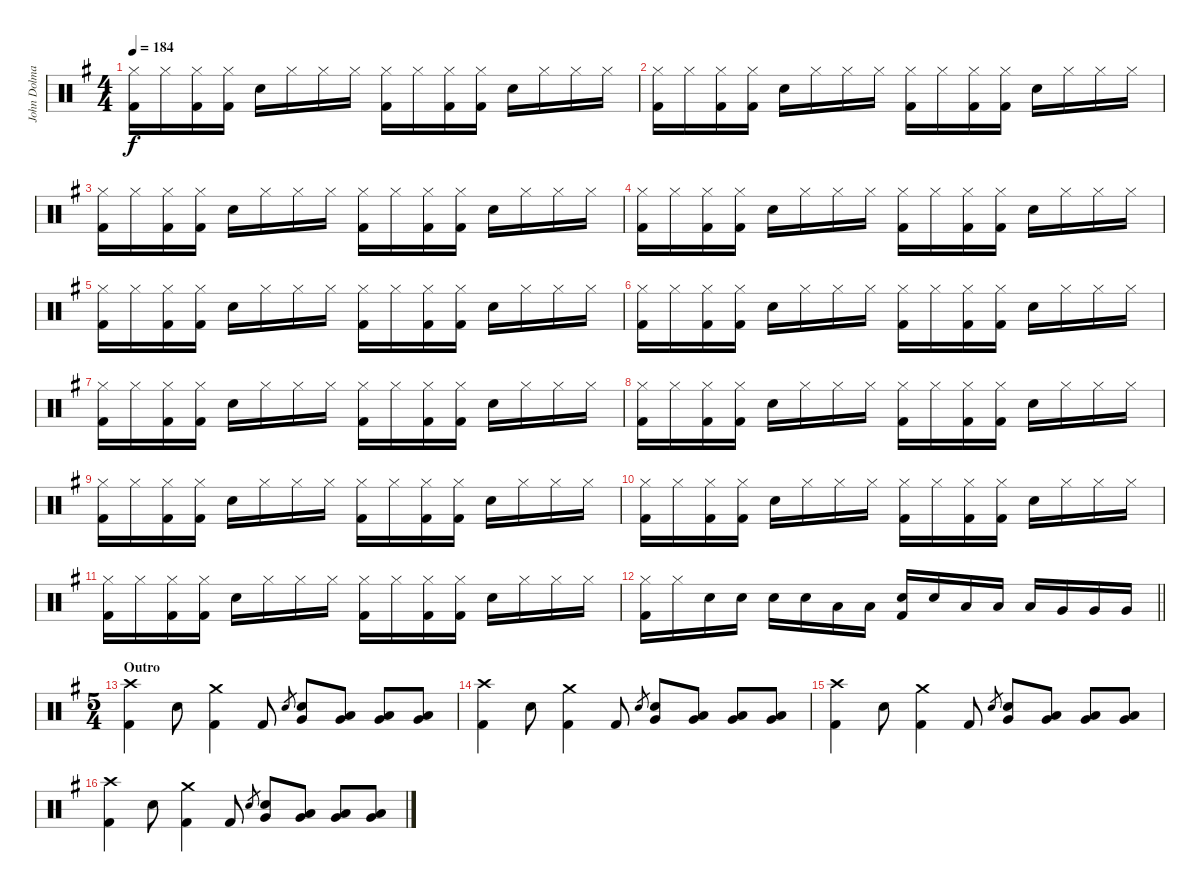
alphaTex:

\track ("John Dolmayan [Drums]" "John Dolma") {instrument percussion}
\staff {score}
\articulation defaults
\ts (4 4)
\tempo 184
\clef neutral
\ks eminor
("Hi-Hat (closed)" "Kick (hit) 2").16{dy f} "Hi-Hat (closed)".16 ("Hi-Hat (closed)" "Kick (hit) 2").16 ("Hi-Hat (closed)" "Kick (hit) 2").16 "Electric Snare (hit)".16 "Hi-Hat (closed)".16 "Hi-Hat (closed)".16 "Hi-Hat (closed)".16 ("Hi-Hat (closed)" "Kick (hit) 2").16 "Hi-Hat (closed)".16 ("Hi-Hat (closed)" "Kick (hit) 2").16 ("Hi-Hat (closed)" "Kick (hit) 2").16 "Electric Snare (hit)".16 "Hi-Hat (closed)".16 "Hi-Hat (closed)".16 "Hi-Hat (closed)".16 |
("Hi-Hat (closed)" "Kick (hit) 2").16 "Hi-Hat (closed)".16 ("Hi-Hat (closed)" "Kick (hit) 2").16 ("Hi-Hat (closed)" "Kick (hit) 2").16 "Electric Snare (hit)".16 "Hi-Hat (closed)".16 "Hi-Hat (closed)".16 "Hi-Hat (closed)".16 ("Hi-Hat (closed)" "Kick (hit) 2").16 "Hi-Hat (closed)".16 ("Hi-Hat (closed)" "Kick (hit) 2").16 ("Hi-Hat (closed)" "Kick (hit) 2").16 "Electric Snare (hit)".16 "Hi-Hat (closed)".16 "Hi-Hat (closed)".16 "Hi-Hat (closed)".16 |
("Hi-Hat (closed)" "Kick (hit) 2").16 "Hi-Hat (closed)".16 ("Hi-Hat (closed)" "Kick (hit) 2").16 ("Hi-Hat (closed)" "Kick (hit) 2").16 "Electric Snare (hit)".16 "Hi-Hat (closed)".16 "Hi-Hat (closed)".16 "Hi-Hat (closed)".16 ("Hi-Hat (closed)" "Kick (hit) 2").16 "Hi-Hat (closed)".16 ("Hi-Hat (closed)" "Kick (hit) 2").16 ("Hi-Hat (closed)" "Kick (hit) 2").16 "Electric Snare (hit)".16 "Hi-Hat (closed)".16 "Hi-Hat (closed)".16 "Hi-Hat (closed)".16 |
("Hi-Hat (closed)" "Kick (hit) 2").16 "Hi-Hat (closed)".16 ("Hi-Hat (closed)" "Kick (hit) 2").16 ("Hi-Hat (closed)" "Kick (hit) 2").16 "Electric Snare (hit)".16 "Hi-Hat (closed)".16 "Hi-Hat (closed)".16 "Hi-Hat (closed)".16 ("Hi-Hat (closed)" "Kick (hit) 2").16 "Hi-Hat (closed)".16 ("Hi-Hat (closed)" "Kick (hit) 2").16 ("Hi-Hat (closed)" "Kick (hit) 2").16 "Electric Snare (hit)".16 "Hi-Hat (closed)".16 "Hi-Hat (closed)".16 "Hi-Hat (closed)".16 |
("Hi-Hat (closed)" "Kick (hit) 2").16 "Hi-Hat (closed)".16 ("Hi-Hat (closed)" "Kick (hit) 2").16 ("Hi-Hat (closed)" "Kick (hit) 2").16 "Electric Snare (hit)".16 "Hi-Hat (closed)".16 "Hi-Hat (closed)".16 "Hi-Hat (closed)".16 ("Hi-Hat (closed)" "Kick (hit) 2").16 "Hi-Hat (closed)".16 ("Hi-Hat (closed)" "Kick (hit) 2").16 ("Hi-Hat (closed)" "Kick (hit) 2").16 "Electric Snare (hit)".16 "Hi-Hat (closed)".16 "Hi-Hat (closed)".16 "Hi-Hat (closed)".16 |
("Hi-Hat (closed)" "Kick (hit) 2").16 "Hi-Hat (closed)".16 ("Hi-Hat (closed)" "Kick (hit) 2").16 ("Hi-Hat (closed)" "Kick (hit) 2").16 "Electric Snare (hit)".16 "Hi-Hat (closed)".16 "Hi-Hat (closed)".16 "Hi-Hat (closed)".16 ("Hi-Hat (closed)" "Kick (hit) 2").16 "Hi-Hat (closed)".16 ("Hi-Hat (closed)" "Kick (hit) 2").16 ("Hi-Hat (closed)" "Kick (hit) 2").16 "Electric Snare (hit)".16 "Hi-Hat (closed)".16 "Hi-Hat (closed)".16 "Hi-Hat (closed)".16 |
("Hi-Hat (closed)" "Kick (hit) 2").16 "Hi-Hat (closed)".16 ("Hi-Hat (closed)" "Kick (hit) 2").16 ("Hi-Hat (closed)" "Kick (hit) 2").16 "Electric Snare (hit)".16 "Hi-Hat (closed)".16 "Hi-Hat (closed)".16 "Hi-Hat (closed)".16 ("Hi-Hat (closed)" "Kick (hit) 2").16 "Hi-Hat (closed)".16 ("Hi-Hat (closed)" "Kick (hit) 2").16 ("Hi-Hat (closed)" "Kick (hit) 2").16 "Electric Snare (hit)".16 "Hi-Hat (closed)".16 "Hi-Hat (closed)".16 "Hi-Hat (closed)".16 |
("Hi-Hat (closed)" "Kick (hit) 2").16 "Hi-Hat (closed)".16 ("Hi-Hat (closed)" "Kick (hit) 2").16 ("Hi-Hat (closed)" "Kick (hit) 2").16 "Electric Snare (hit)".16 "Hi-Hat (closed)".16 "Hi-Hat (closed)".16 "Hi-Hat (closed)".16 ("Hi-Hat (closed)" "Kick (hit) 2").16 "Hi-Hat (closed)".16 ("Hi-Hat (closed)" "Kick (hit) 2").16 ("Hi-Hat (closed)" "Kick (hit) 2").16 "Electric Snare (hit)".16 "Hi-Hat (closed)".16 "Hi-Hat (closed)".16 "Hi-Hat (closed)".16 |
("Hi-Hat (closed)" "Kick (hit) 2").16 "Hi-Hat (closed)".16 ("Hi-Hat (closed)" "Kick (hit) 2").16 ("Hi-Hat (closed)" "Kick (hit) 2").16 "Electric Snare (hit)".16 "Hi-Hat (closed)".16 "Hi-Hat (closed)".16 "Hi-Hat (closed)".16 ("Hi-Hat (closed)" "Kick (hit) 2").16 "Hi-Hat (closed)".16 ("Hi-Hat (closed)" "Kick (hit) 2").16 ("Hi-Hat (closed)" "Kick (hit) 2").16 "Electric Snare (hit)".16 "Hi-Hat (closed)".16 "Hi-Hat (closed)".16 "Hi-Hat (closed)".16 |
("Hi-Hat (closed)" "Kick (hit) 2").16 "Hi-Hat (closed)".16 ("Hi-Hat (closed)" "Kick (hit) 2").16 ("Hi-Hat (closed)" "Kick (hit) 2").16 "Electric Snare (hit)".16 "Hi-Hat (closed)".16 "Hi-Hat (closed)".16 "Hi-Hat (closed)".16 ("Hi-Hat (closed)" "Kick (hit) 2").16 "Hi-Hat (closed)".16 ("Hi-Hat (closed)" "Kick (hit) 2").16 ("Hi-Hat (closed)" "Kick (hit) 2").16 "Electric Snare (hit)".16 "Hi-Hat (closed)".16 "Hi-Hat (closed)".16 "Hi-Hat (closed)".16 |
("Hi-Hat (closed)" "Kick (hit) 2").16 "Hi-Hat (closed)".16 ("Hi-Hat (closed)" "Kick (hit) 2").16 ("Hi-Hat (closed)" "Kick (hit) 2").16 "Electric Snare (hit)".16 "Hi-Hat (closed)".16 "Hi-Hat (closed)".16 "Hi-Hat (closed)".16 ("Hi-Hat (closed)" "Kick (hit) 2").16 "Hi-Hat (closed)".16 ("Hi-Hat (closed)" "Kick (hit) 2").16 ("Hi-Hat (closed)" "Kick (hit) 2").16 "Electric Snare (hit)".16 "Hi-Hat (closed)".16 "Hi-Hat (closed)".16 "Hi-Hat (closed)".16 |
\barLineRight lightlight
("Hi-Hat (closed)" "Kick (hit) 2").16 "Hi-Hat (closed)".16 "Electric Snare (hit)".16 "Electric Snare (hit)".16 "Electric Snare (hit)".16 "Electric Snare (hit)".16 "Low Tom (hit)".16 "Low Tom (hit)".16 ("Electric Snare (hit)" "Kick (hit) 2").16 "Electric Snare (hit)".16 "Low Tom (hit)".16 "Low Tom (hit)".16 "Low Tom (hit)".16 "Very Low Tom (hit)".16 "Very Low Tom (hit)".16 "Very Low Tom (hit)".16 |
\ts (5 4)
\section ("" "Outro")
("Crash high (hit)" "Kick (hit) 2").4 "Electric Snare (hit)".8 ("Crash medium (hit)" "Kick (hit) 2").4 "Kick (hit) 2".8 "Electric Snare (hit)".8{gr} ("Very Low Tom (hit)" "Electric Snare (hit)").8 ("Low Tom (hit)" "Very Low Tom (hit)").8 ("Very Low Tom (hit)" "Low Floor Tom (hit)").8 ("Very Low Tom (hit)" "Low Floor Tom (hit)").8 |
("Crash high (hit)" "Kick (hit) 2").4 "Electric Snare (hit)".8 ("Crash medium (hit)" "Kick (hit) 2").4 "Kick (hit) 2".8 "Electric Snare (hit)".8{gr} ("Very Low Tom (hit)" "Electric Snare (hit)").8 ("Low Tom (hit)" "Very Low Tom (hit)").8 ("Very Low Tom (hit)" "Low Floor Tom (hit)").8 ("Very Low Tom (hit)" "Low Floor Tom (hit)").8 |
("Crash high (hit)" "Kick (hit) 2").4 "Electric Snare (hit)".8 ("Crash medium (hit)" "Kick (hit) 2").4 "Kick (hit) 2".8 "Electric Snare (hit)".8{gr} ("Very Low Tom (hit)" "Electric Snare (hit)").8 ("Low Tom (hit)" "Very Low Tom (hit)").8 ("Very Low Tom (hit)" "Low Floor Tom (hit)").8 ("Very Low Tom (hit)" "Low Floor Tom (hit)").8 |
("Crash high (hit)" "Kick (hit) 2").4 "Electric Snare (hit)".8 ("Crash medium (hit)" "Kick (hit) 2").4 "Kick (hit) 2".8 "Electric Snare (hit)".8{gr} ("Very Low Tom (hit)" "Electric Snare (hit)").8 ("Low Tom (hit)" "Very Low Tom (hit)").8 ("Very Low Tom (hit)" "Low Floor Tom (hit)").8 ("Very Low Tom (hit)" "Low Floor Tom (hit)").8
